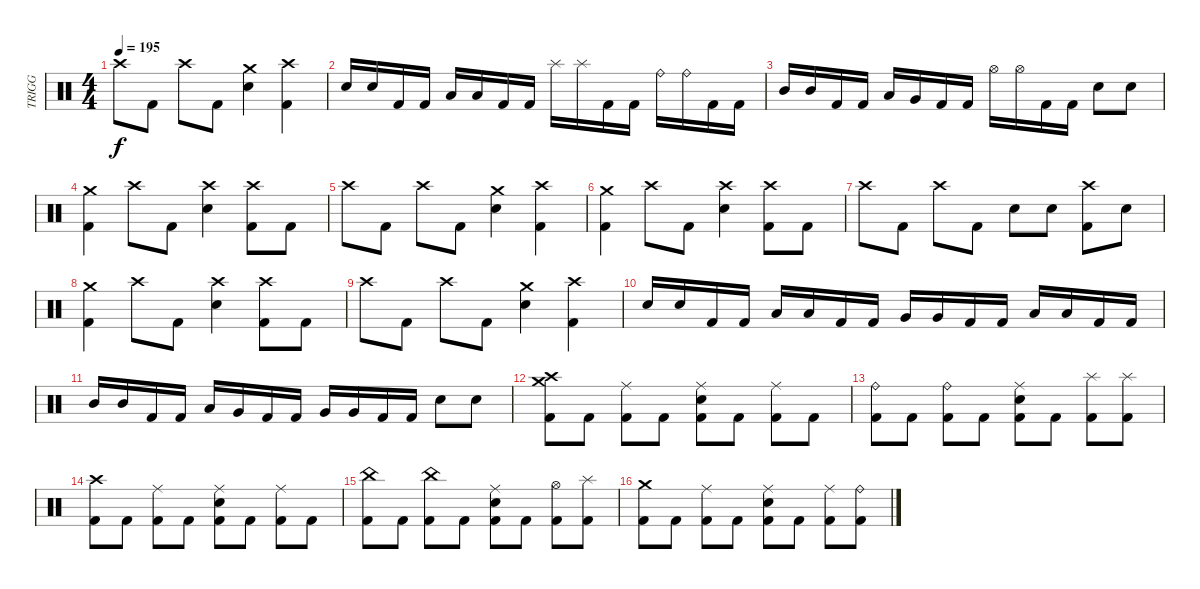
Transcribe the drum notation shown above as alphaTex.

\track ("TRIGG" "TRIGG") {instrument percussion}
\staff {score}
\articulation defaults
\ts (4 4)
\tempo 195
\clef neutral
\ks c "Crash high (hit)".8{dy f} "Kick (hit) 2".8 "Crash high (hit)".8 "Kick (hit) 2".8
("Crash medium (hit)" "Electric Snare (hit)").4 ("Crash high (hit)" "Kick (hit) 2").4 |
"Electric Snare (hit)".16 "Electric Snare (hit)".16 "Kick (hit) 2".16 "Kick (hit) 2".16 "Low Tom (hit)".16 "Low Tom (hit)".16 "Kick (hit) 2".16 "Kick (hit) 2".16 "Splash (hit)".16 "Splash (hit)".16 "Kick (hit) 2".16 "Kick (hit) 2".16 "Ride (bell)".16 "Ride (bell)".16 "Kick (hit) 2".16 "Kick (hit) 2".16 |
"Mid Tom (hit)".16 "Mid Tom (hit)".16 "Kick (hit) 2".16 "Kick (hit) 2".16 "Low Tom (hit)".16 "Very Low Tom (hit)".16 "Kick (hit) 2".16 "Kick (hit) 2".16 "Hi-Hat (open)".16 "Hi-Hat (open)".16 "Kick (hit) 2".16 "Kick (hit) 2".16 "Electric Snare (hit)".8 "Electric Snare (hit)".8 |
("Crash medium (hit)" "Kick (hit) 2").4 "Crash high (hit)".8 "Kick (hit) 2".8 ("Crash high (hit)" "Electric Snare (hit)").4 ("Crash high (hit)" "Kick (hit) 2").8 "Kick (hit) 2".8 |
"Crash high (hit)".8 "Kick (hit) 2".8 "Crash high (hit)".8 "Kick (hit) 2".8 ("Crash medium (hit)" "Electric Snare (hit)").4 ("Crash high (hit)" "Kick (hit) 2").4 |
("Crash medium (hit)" "Kick (hit) 2").4 "Crash high (hit)".8 "Kick (hit) 2".8 ("Crash high (hit)" "Electric Snare (hit)").4 ("Crash high (hit)" "Kick (hit) 2").8 "Kick (hit) 2".8 |
"Crash high (hit)".8 "Kick (hit) 2".8 "Crash high (hit)".8 "Kick (hit) 2".8 "Electric Snare (hit)".8 "Electric Snare (hit)".8 ("Crash high (hit)" "Kick (hit) 2").8 "Electric Snare (hit)".8 |
("Crash medium (hit)" "Kick (hit) 2").4 "Crash high (hit)".8 "Kick (hit) 2".8 ("Crash high (hit)" "Electric Snare (hit)").4 ("Crash high (hit)" "Kick (hit) 2").8 "Kick (hit) 2".8 |
"Crash high (hit)".8 "Kick (hit) 2".8 "Crash high (hit)".8 "Kick (hit) 2".8 ("Crash medium (hit)" "Electric Snare (hit)").4 ("Crash high (hit)" "Kick (hit) 2").4 |
"Electric Snare (hit)".16 "Electric Snare (hit)".16 "Kick (hit) 2".16 "Kick (hit) 2".16 "Low Tom (hit)".16 "Low Tom (hit)".16 "Kick (hit) 2".16 "Kick (hit) 2".16 "Very Low Tom (hit)".16 "Very Low Tom (hit)".16 "Kick (hit) 2".16 "Kick (hit) 2".16 "Low Floor Tom (hit)".16 "Low Floor Tom (hit)".16 "Kick (hit) 2".16 "Kick (hit) 2".16 |
"Mid Tom (hit)".16 "Mid Tom (hit)".16 "Kick (hit) 2".16 "Kick (hit) 2".16 "Low Tom (hit)".16 "Very Low Tom (hit)".16 "Kick (hit) 2".16 "Kick (hit) 2".16 "Very Low Tom (hit)".16 "Very Low Tom (hit)".16 "Kick (hit) 2".16 "Kick (hit) 2".16 "Electric Snare (hit)".8 "Electric Snare (hit)".8 |
("Crash medium (hit)" "Crash high (hit)" "Kick (hit) 2").8 "Kick (hit) 2".8 ("Ride (middle)" "Kick (hit) 2").8 "Kick (hit) 2".8 ("Ride (middle)" "Electric Snare (hit)" "Kick (hit) 2").8 "Kick (hit) 2".8 ("Ride (middle)" "Kick (hit) 2").8 "Kick (hit) 2".8 |
("Ride (bell)" "Kick (hit) 2").8 "Kick (hit) 2".8 ("Ride (bell)" "Kick (hit) 2").8 "Kick (hit) 2".8 ("Ride (middle)" "Electric Snare (hit)" "Kick (hit) 2").8 "Kick (hit) 2".8 ("Splash (hit)" "Kick (hit) 2").8 ("Splash (hit)" "Kick (hit) 2").8 |
("Crash high (hit)" "Kick (hit) 2").8 "Kick (hit) 2".8 ("Ride (middle)" "Kick (hit) 2").8 "Kick (hit) 2".8 ("Ride (middle)" "Electric Snare (hit)" "Kick (hit) 2").8 "Kick (hit) 2".8 ("Ride (middle)" "Kick (hit) 2").8 "Kick (hit) 2".8 |
("China (hit)" "Kick (hit) 2").8 "Kick (hit) 2".8 ("China (hit)" "Kick (hit) 2").8 "Kick (hit) 2".8 ("Ride (middle)" "Electric Snare (hit)" "Kick (hit) 2").8 "Kick (hit) 2".8 ("Hi-Hat (open)" "Kick (hit) 2").8 ("Splash (hit)" "Kick (hit) 2").8 |
("Crash medium (hit)" "Kick (hit) 2").8 "Kick (hit) 2".8 ("Ride (middle)" "Kick (hit) 2").8 "Kick (hit) 2".8 ("Ride (middle)" "Electric Snare (hit)" "Kick (hit) 2").8 "Kick (hit) 2".8 ("Ride (middle)" "Kick (hit) 2").8 ("Ride (bell)" "Kick (hit) 2").8
